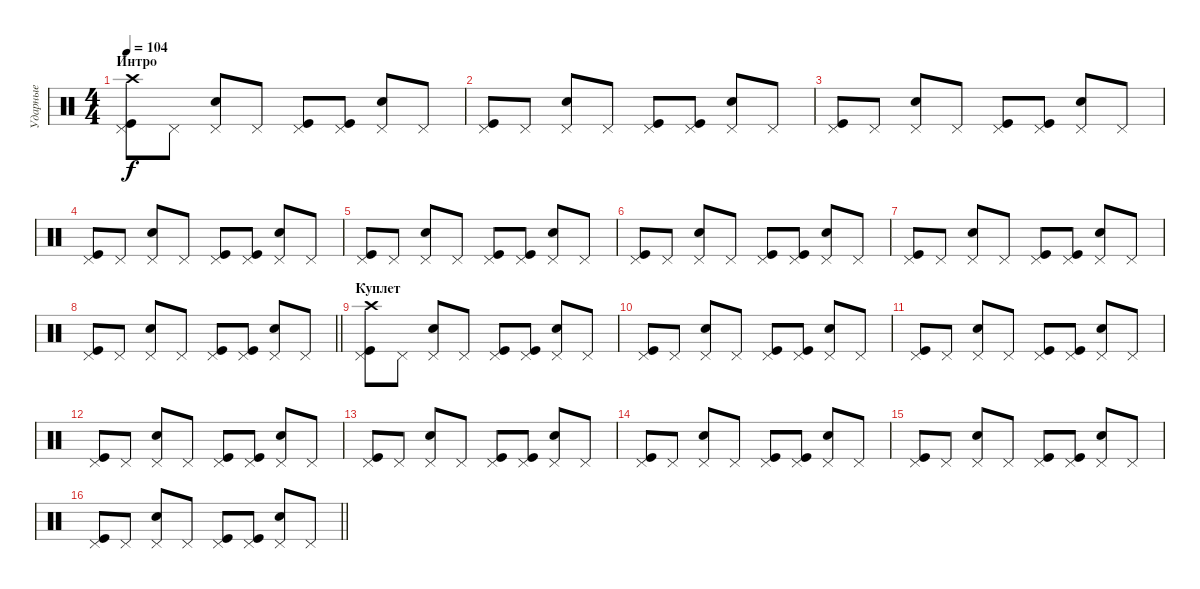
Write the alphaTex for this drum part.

\track ("Ударные" "Ударные") {instrument percussion}
\staff {score}
\articulation defaults
\ts (4 4)
\section ("" "Интро")
\tempo 104
\clef neutral
\ks c
("Pedal Hi-Hat (hit)" "Kick (hit)" "Crash high (hit)").8{dy f} "Pedal Hi-Hat (hit)".8 ("Pedal Hi-Hat (hit)" "Snare (hit) 2").8 "Pedal Hi-Hat (hit)".8 ("Pedal Hi-Hat (hit)" "Kick (hit)").8 ("Pedal Hi-Hat (hit)" "Kick (hit)").8 ("Pedal Hi-Hat (hit)" "Snare (hit) 2").8 "Pedal Hi-Hat (hit)".8 |
("Pedal Hi-Hat (hit)" "Kick (hit)").8 "Pedal Hi-Hat (hit)".8 ("Pedal Hi-Hat (hit)" "Snare (hit) 2").8 "Pedal Hi-Hat (hit)".8 ("Pedal Hi-Hat (hit)" "Kick (hit)").8 ("Pedal Hi-Hat (hit)" "Kick (hit)").8 ("Pedal Hi-Hat (hit)" "Snare (hit) 2").8 "Pedal Hi-Hat (hit)".8 |
("Pedal Hi-Hat (hit)" "Kick (hit)").8 "Pedal Hi-Hat (hit)".8 ("Pedal Hi-Hat (hit)" "Snare (hit) 2").8 "Pedal Hi-Hat (hit)".8 ("Pedal Hi-Hat (hit)" "Kick (hit)").8 ("Pedal Hi-Hat (hit)" "Kick (hit)").8 ("Pedal Hi-Hat (hit)" "Snare (hit) 2").8 "Pedal Hi-Hat (hit)".8 |
("Pedal Hi-Hat (hit)" "Kick (hit)").8 "Pedal Hi-Hat (hit)".8 ("Pedal Hi-Hat (hit)" "Snare (hit) 2").8 "Pedal Hi-Hat (hit)".8 ("Pedal Hi-Hat (hit)" "Kick (hit)").8 ("Pedal Hi-Hat (hit)" "Kick (hit)").8 ("Pedal Hi-Hat (hit)" "Snare (hit) 2").8 "Pedal Hi-Hat (hit)".8 |
("Pedal Hi-Hat (hit)" "Kick (hit)").8 "Pedal Hi-Hat (hit)".8 ("Pedal Hi-Hat (hit)" "Snare (hit) 2").8 "Pedal Hi-Hat (hit)".8 ("Pedal Hi-Hat (hit)" "Kick (hit)").8 ("Pedal Hi-Hat (hit)" "Kick (hit)").8 ("Pedal Hi-Hat (hit)" "Snare (hit) 2").8 "Pedal Hi-Hat (hit)".8 |
("Pedal Hi-Hat (hit)" "Kick (hit)").8 "Pedal Hi-Hat (hit)".8 ("Pedal Hi-Hat (hit)" "Snare (hit) 2").8 "Pedal Hi-Hat (hit)".8 ("Pedal Hi-Hat (hit)" "Kick (hit)").8 ("Pedal Hi-Hat (hit)" "Kick (hit)").8 ("Pedal Hi-Hat (hit)" "Snare (hit) 2").8 "Pedal Hi-Hat (hit)".8 |
("Pedal Hi-Hat (hit)" "Kick (hit)").8 "Pedal Hi-Hat (hit)".8 ("Pedal Hi-Hat (hit)" "Snare (hit) 2").8 "Pedal Hi-Hat (hit)".8 ("Pedal Hi-Hat (hit)" "Kick (hit)").8 ("Pedal Hi-Hat (hit)" "Kick (hit)").8 ("Pedal Hi-Hat (hit)" "Snare (hit) 2").8 "Pedal Hi-Hat (hit)".8 |
\barLineRight lightlight
("Pedal Hi-Hat (hit)" "Kick (hit)").8 "Pedal Hi-Hat (hit)".8 ("Pedal Hi-Hat (hit)" "Snare (hit) 2").8 "Pedal Hi-Hat (hit)".8 ("Pedal Hi-Hat (hit)" "Kick (hit)").8 ("Pedal Hi-Hat (hit)" "Kick (hit)").8 ("Pedal Hi-Hat (hit)" "Snare (hit) 2").8 "Pedal Hi-Hat (hit)".8 |
\section ("" "Куплет")
("Pedal Hi-Hat (hit)" "Kick (hit)" "Crash high (hit)").8 "Pedal Hi-Hat (hit)".8 ("Pedal Hi-Hat (hit)" "Snare (hit) 2").8 "Pedal Hi-Hat (hit)".8 ("Pedal Hi-Hat (hit)" "Kick (hit)").8 ("Pedal Hi-Hat (hit)" "Kick (hit)").8 ("Pedal Hi-Hat (hit)" "Snare (hit) 2").8 "Pedal Hi-Hat (hit)".8 |
("Pedal Hi-Hat (hit)" "Kick (hit)").8 "Pedal Hi-Hat (hit)".8 ("Pedal Hi-Hat (hit)" "Snare (hit) 2").8 "Pedal Hi-Hat (hit)".8 ("Pedal Hi-Hat (hit)" "Kick (hit)").8 ("Pedal Hi-Hat (hit)" "Kick (hit)").8 ("Pedal Hi-Hat (hit)" "Snare (hit) 2").8 "Pedal Hi-Hat (hit)".8 |
("Pedal Hi-Hat (hit)" "Kick (hit)").8 "Pedal Hi-Hat (hit)".8 ("Pedal Hi-Hat (hit)" "Snare (hit) 2").8 "Pedal Hi-Hat (hit)".8 ("Pedal Hi-Hat (hit)" "Kick (hit)").8 ("Pedal Hi-Hat (hit)" "Kick (hit)").8 ("Pedal Hi-Hat (hit)" "Snare (hit) 2").8 "Pedal Hi-Hat (hit)".8 |
("Pedal Hi-Hat (hit)" "Kick (hit)").8 "Pedal Hi-Hat (hit)".8 ("Pedal Hi-Hat (hit)" "Snare (hit) 2").8 "Pedal Hi-Hat (hit)".8 ("Pedal Hi-Hat (hit)" "Kick (hit)").8 ("Pedal Hi-Hat (hit)" "Kick (hit)").8 ("Pedal Hi-Hat (hit)" "Snare (hit) 2").8 "Pedal Hi-Hat (hit)".8 |
("Pedal Hi-Hat (hit)" "Kick (hit)").8 "Pedal Hi-Hat (hit)".8 ("Pedal Hi-Hat (hit)" "Snare (hit) 2").8 "Pedal Hi-Hat (hit)".8 ("Pedal Hi-Hat (hit)" "Kick (hit)").8 ("Pedal Hi-Hat (hit)" "Kick (hit)").8 ("Pedal Hi-Hat (hit)" "Snare (hit) 2").8 "Pedal Hi-Hat (hit)".8 |
("Pedal Hi-Hat (hit)" "Kick (hit)").8 "Pedal Hi-Hat (hit)".8 ("Pedal Hi-Hat (hit)" "Snare (hit) 2").8 "Pedal Hi-Hat (hit)".8 ("Pedal Hi-Hat (hit)" "Kick (hit)").8 ("Pedal Hi-Hat (hit)" "Kick (hit)").8 ("Pedal Hi-Hat (hit)" "Snare (hit) 2").8 "Pedal Hi-Hat (hit)".8 |
("Pedal Hi-Hat (hit)" "Kick (hit)").8 "Pedal Hi-Hat (hit)".8 ("Pedal Hi-Hat (hit)" "Snare (hit) 2").8 "Pedal Hi-Hat (hit)".8 ("Pedal Hi-Hat (hit)" "Kick (hit)").8 ("Pedal Hi-Hat (hit)" "Kick (hit)").8 ("Pedal Hi-Hat (hit)" "Snare (hit) 2").8 "Pedal Hi-Hat (hit)".8 |
\barLineRight lightlight
("Pedal Hi-Hat (hit)" "Kick (hit)").8 "Pedal Hi-Hat (hit)".8 ("Pedal Hi-Hat (hit)" "Snare (hit) 2").8 "Pedal Hi-Hat (hit)".8 ("Pedal Hi-Hat (hit)" "Kick (hit)").8 ("Pedal Hi-Hat (hit)" "Kick (hit)").8 ("Pedal Hi-Hat (hit)" "Snare (hit) 2").8 "Pedal Hi-Hat (hit)".8
